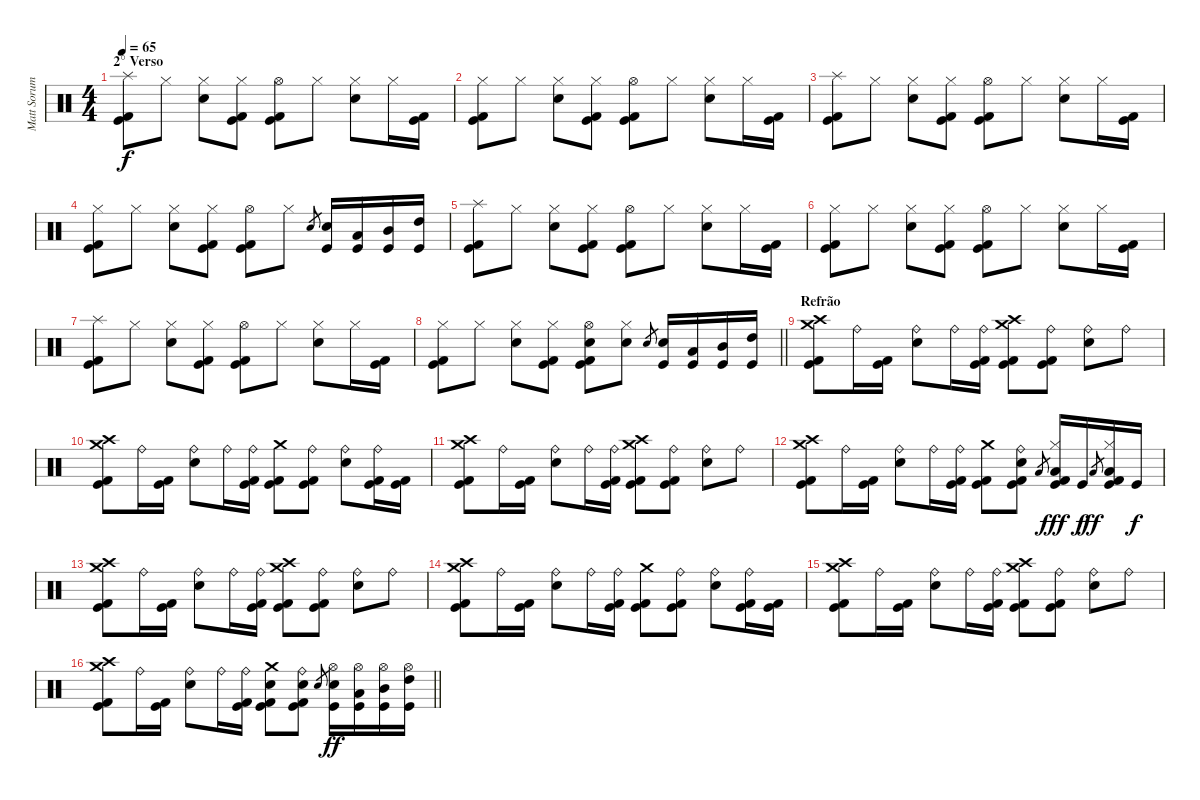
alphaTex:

\track ("Matt Sorum" "Matt Sorum") {instrument percussion}
\staff {score}
\articulation defaults
\ts (4 4)
\section ("" "2° Verso")
\tempo 65
\clef neutral
\ks c
("Splash (hit)" "Kick (hit) 2" "Kick (hit)").8{dy f} "Hi-Hat (closed)".8 ("Hi-Hat (closed)" "Electric Snare (hit)").8 ("Hi-Hat (closed)" "Kick (hit) 2" "Kick (hit)").8 ("Hi-Hat (open)" "Kick (hit) 2" "Kick (hit)").8 "Hi-Hat (closed)".8 ("Hi-Hat (closed)" "Electric Snare (hit)").8 "Hi-Hat (closed)".16 ("Kick (hit) 2" "Kick (hit)").16 |
("Hi-Hat (closed)" "Kick (hit) 2" "Kick (hit)").8 "Hi-Hat (closed)".8 ("Hi-Hat (closed)" "Electric Snare (hit)").8 ("Hi-Hat (closed)" "Kick (hit) 2" "Kick (hit)").8 ("Hi-Hat (open)" "Kick (hit) 2" "Kick (hit)").8 "Hi-Hat (closed)".8 ("Hi-Hat (closed)" "Electric Snare (hit)").8 "Hi-Hat (closed)".16 ("Kick (hit) 2" "Kick (hit)").16 |
("Splash (hit)" "Kick (hit) 2" "Kick (hit)").8 "Hi-Hat (closed)".8 ("Hi-Hat (closed)" "Electric Snare (hit)").8 ("Hi-Hat (closed)" "Kick (hit) 2" "Kick (hit)").8 ("Hi-Hat (open)" "Kick (hit) 2" "Kick (hit)").8 "Hi-Hat (closed)".8 ("Hi-Hat (closed)" "Electric Snare (hit)").8 "Hi-Hat (closed)".16 ("Kick (hit) 2" "Kick (hit)").16 |
("Hi-Hat (closed)" "Kick (hit) 2" "Kick (hit)").8 "Hi-Hat (closed)".8 ("Hi-Hat (closed)" "Electric Snare (hit)").8 ("Hi-Hat (closed)" "Kick (hit) 2" "Kick (hit)").8 ("Hi-Hat (open)" "Kick (hit) 2" "Kick (hit)").8 "Hi-Hat (closed)".8 "Electric Snare (hit)".8{gr} ("Electric Snare (hit)" "Kick (hit)").16 ("Low Tom (hit)" "Kick (hit)").16 ("Mid Tom (hit)" "Kick (hit)").16 ("High Tom (hit)" "Kick (hit)").16 |
("Splash (hit)" "Kick (hit) 2" "Kick (hit)").8 "Hi-Hat (closed)".8 ("Hi-Hat (closed)" "Electric Snare (hit)").8 ("Hi-Hat (closed)" "Kick (hit) 2" "Kick (hit)").8 ("Hi-Hat (open)" "Kick (hit) 2" "Kick (hit)").8 "Hi-Hat (closed)".8 ("Hi-Hat (closed)" "Electric Snare (hit)").8 "Hi-Hat (closed)".16 ("Kick (hit) 2" "Kick (hit)").16 |
("Hi-Hat (closed)" "Kick (hit) 2" "Kick (hit)").8 "Hi-Hat (closed)".8 ("Hi-Hat (closed)" "Electric Snare (hit)").8 ("Hi-Hat (closed)" "Kick (hit) 2" "Kick (hit)").8 ("Hi-Hat (open)" "Kick (hit) 2" "Kick (hit)").8 "Hi-Hat (closed)".8 ("Hi-Hat (closed)" "Electric Snare (hit)").8 "Hi-Hat (closed)".16 ("Kick (hit) 2" "Kick (hit)").16 |
("Splash (hit)" "Kick (hit) 2" "Kick (hit)").8 "Hi-Hat (closed)".8 ("Hi-Hat (closed)" "Electric Snare (hit)").8 ("Hi-Hat (closed)" "Kick (hit) 2" "Kick (hit)").8 ("Hi-Hat (open)" "Kick (hit) 2" "Kick (hit)").8 "Hi-Hat (closed)".8 ("Hi-Hat (closed)" "Electric Snare (hit)").8 "Hi-Hat (closed)".16 ("Kick (hit) 2" "Kick (hit)").16 |
\barLineRight lightlight
("Hi-Hat (closed)" "Kick (hit) 2" "Kick (hit)").8 "Hi-Hat (closed)".8 ("Hi-Hat (closed)" "Electric Snare (hit)").8 ("Hi-Hat (closed)" "Kick (hit) 2" "Kick (hit)").8 ("Hi-Hat (open)" "Electric Snare (hit)" "Kick (hit) 2" "Kick (hit)").8 ("Hi-Hat (closed)" "Electric Snare (hit)").8 "Electric Snare (hit)".8{gr} ("Electric Snare (hit)" "Kick (hit)").16 ("Low Tom (hit)" "Kick (hit)").16 ("Mid Tom (hit)" "Kick (hit)").16 ("High Tom (hit)" "Kick (hit)").16 |
\section ("" "Refrão")
("Crash medium (hit)" "Crash high (hit)" "Kick (hit) 2" "Kick (hit)").8 "Ride (bell)".16 ("Kick (hit) 2" "Kick (hit)").16 ("Ride (bell)" "Electric Snare (hit)").8 "Ride (bell)".16 ("Ride (bell)" "Kick (hit) 2" "Kick (hit)").16 ("Crash medium (hit)" "Crash high (hit)" "Kick (hit) 2" "Kick (hit)").8 ("Ride (bell)" "Kick (hit) 2" "Kick (hit)").8 ("Ride (bell)" "Electric Snare (hit)").8 "Ride (bell)".8 |
("Crash medium (hit)" "Crash high (hit)" "Kick (hit) 2" "Kick (hit)").8 "Ride (bell)".16 ("Kick (hit) 2" "Kick (hit)").16 ("Ride (bell)" "Electric Snare (hit)").8 "Ride (bell)".16 ("Ride (bell)" "Kick (hit) 2" "Kick (hit)").16 ("Crash medium (hit)" "Kick (hit) 2" "Kick (hit)").8 ("Ride (bell)" "Kick (hit) 2" "Kick (hit)").8 ("Ride (bell)" "Electric Snare (hit)").8 ("Ride (bell)" "Kick (hit) 2" "Kick (hit)").16 ("Kick (hit) 2" "Kick (hit)").16 |
("Crash medium (hit)" "Crash high (hit)" "Kick (hit) 2" "Kick (hit)").8 "Ride (bell)".16 ("Kick (hit) 2" "Kick (hit)").16 ("Ride (bell)" "Electric Snare (hit)").8 "Ride (bell)".16 ("Ride (bell)" "Kick (hit) 2" "Kick (hit)").16 ("Crash medium (hit)" "Crash high (hit)" "Kick (hit) 2" "Kick (hit)").8 ("Ride (bell)" "Kick (hit) 2" "Kick (hit)").8 ("Ride (bell)" "Electric Snare (hit)").8 "Ride (bell)".8 |
("Crash medium (hit)" "Crash high (hit)" "Kick (hit) 2" "Kick (hit)").8 "Ride (bell)".16 ("Kick (hit) 2" "Kick (hit)").16 ("Ride (bell)" "Electric Snare (hit)").8 "Ride (bell)".16 ("Ride (bell)" "Kick (hit) 2" "Kick (hit)").16 ("Crash medium (hit)" "Kick (hit) 2" "Kick (hit)").8 ("Ride (bell)" "Electric Snare (hit)" "Kick (hit) 2" "Kick (hit)").8 "Low Tom (hit)".8{gr} ("Hi-Hat (closed)" "Low Tom (hit)" "Kick (hit) 2" "Kick (hit)").16{dy fff} "Kick (hit)".16{dy f} "Low Tom (hit)".8{gr dy ff} ("Hi-Hat (closed)" "Low Tom (hit)" "Kick (hit) 2" "Kick (hit)").16 "Kick (hit)".16{dy f} |
("Crash medium (hit)" "Crash high (hit)" "Kick (hit) 2" "Kick (hit)").8 "Ride (bell)".16 ("Kick (hit) 2" "Kick (hit)").16 ("Ride (bell)" "Electric Snare (hit)").8 "Ride (bell)".16 ("Ride (bell)" "Kick (hit) 2" "Kick (hit)").16 ("Crash medium (hit)" "Crash high (hit)" "Kick (hit) 2" "Kick (hit)").8 ("Ride (bell)" "Kick (hit) 2" "Kick (hit)").8 ("Ride (bell)" "Electric Snare (hit)").8 "Ride (bell)".8 |
("Crash medium (hit)" "Crash high (hit)" "Kick (hit) 2" "Kick (hit)").8 "Ride (bell)".16 ("Kick (hit) 2" "Kick (hit)").16 ("Ride (bell)" "Electric Snare (hit)").8 "Ride (bell)".16 ("Ride (bell)" "Kick (hit) 2" "Kick (hit)").16 ("Crash medium (hit)" "Kick (hit) 2" "Kick (hit)").8 ("Ride (bell)" "Kick (hit) 2" "Kick (hit)").8 ("Ride (bell)" "Electric Snare (hit)").8 ("Ride (bell)" "Kick (hit) 2" "Kick (hit)").16 ("Kick (hit) 2" "Kick (hit)").16 |
("Crash medium (hit)" "Crash high (hit)" "Kick (hit) 2" "Kick (hit)").8 "Ride (bell)".16 ("Kick (hit) 2" "Kick (hit)").16 ("Ride (bell)" "Electric Snare (hit)").8 "Ride (bell)".16 ("Ride (bell)" "Kick (hit) 2" "Kick (hit)").16 ("Crash medium (hit)" "Crash high (hit)" "Kick (hit) 2" "Kick (hit)").8 ("Ride (bell)" "Kick (hit) 2" "Kick (hit)").8 ("Ride (bell)" "Electric Snare (hit)").8 "Ride (bell)".8 |
\barLineRight lightlight
("Crash medium (hit)" "Crash high (hit)" "Kick (hit) 2" "Kick (hit)").8 "Ride (bell)".16 ("Kick (hit) 2" "Kick (hit)").16 ("Ride (bell)" "Electric Snare (hit)").8 "Ride (bell)".16 ("Ride (bell)" "Kick (hit) 2" "Kick (hit)").16 ("Crash medium (hit)" "Electric Snare (hit)" "Kick (hit) 2" "Kick (hit)").8 ("Ride (bell)" "Electric Snare (hit)" "Kick (hit) 2" "Kick (hit)").8 "Electric Snare (hit)".8{gr} ("Hi-Hat (open)" "Electric Snare (hit)" "Kick (hit)").16{dy ff} ("Hi-Hat (open)" "Low Tom (hit)" "Kick (hit)").16 ("Hi-Hat (open)" "Mid Tom (hit)" "Kick (hit)").16 ("Hi-Hat (open)" "High Tom (hit)" "Kick (hit)").16
